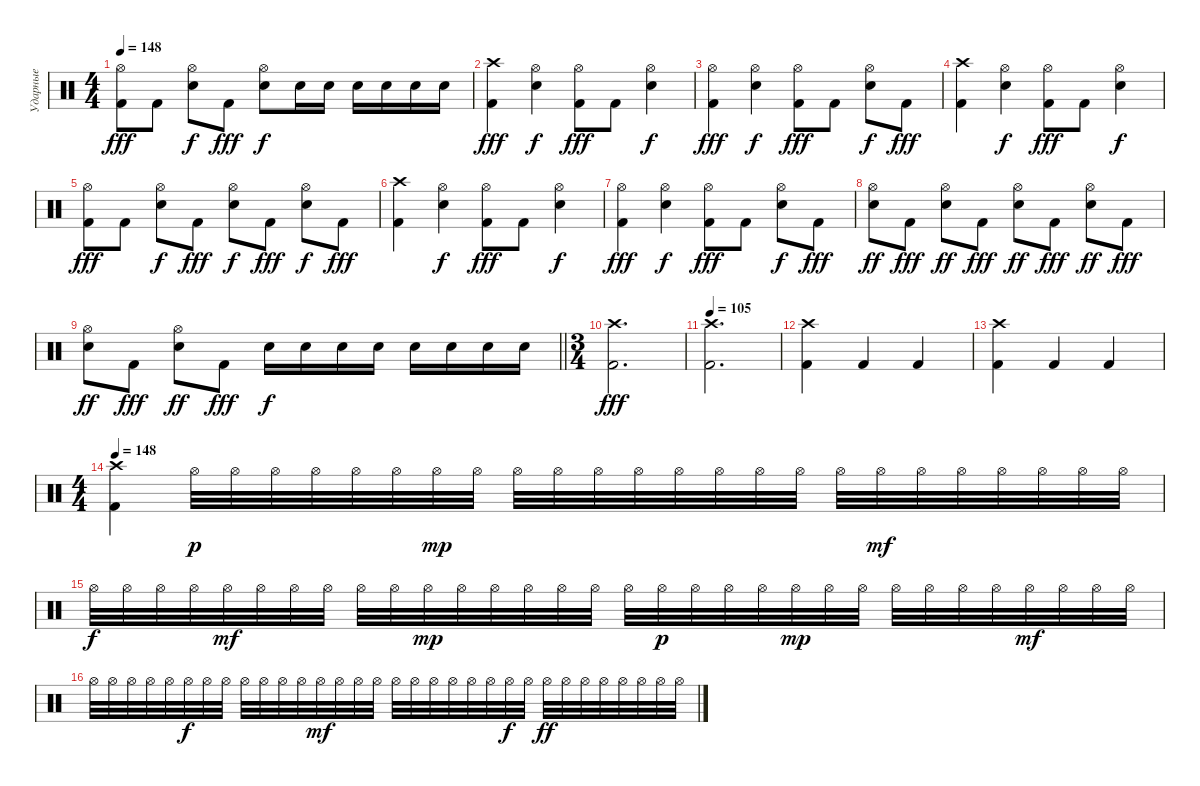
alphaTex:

\track ("Ударные" "Ударные") {instrument percussion}
\staff {score}
\articulation defaults
\ts (4 4)
\tempo 148
\clef neutral
\ks c
("Kick (hit) 2" "Hi-Hat (open)").8{dy fff} "Kick (hit) 2".8 ("Snare (hit) 2" "Hi-Hat (open)").8{dy f} "Kick (hit) 2".8{dy fff} ("Snare (hit) 2" "Hi-Hat (open)").8{dy f} "Snare (hit) 2".16 "Snare (hit) 2".16 "Snare (hit) 2".16 "Snare (hit) 2".16 "Snare (hit) 2".16 "Snare (hit) 2".16 |
("Kick (hit) 2" "Crash high (hit)").4{dy fff} ("Snare (hit) 2" "Hi-Hat (open)").4{dy f} ("Kick (hit) 2" "Hi-Hat (open)").8{dy fff} "Kick (hit) 2".8 ("Snare (hit) 2" "Hi-Hat (open)").4{dy f} |
("Kick (hit) 2" "Hi-Hat (open)").4{dy fff} ("Snare (hit) 2" "Hi-Hat (open)").4{dy f} ("Kick (hit) 2" "Hi-Hat (open)").8{dy fff} "Kick (hit) 2".8 ("Snare (hit) 2" "Hi-Hat (open)").8{dy f} "Kick (hit) 2".8{dy fff} |
("Kick (hit) 2" "Crash high (hit)").4 ("Snare (hit) 2" "Hi-Hat (open)").4{dy f} ("Kick (hit) 2" "Hi-Hat (open)").8{dy fff} "Kick (hit) 2".8 ("Snare (hit) 2" "Hi-Hat (open)").4{dy f} |
("Kick (hit) 2" "Hi-Hat (open)").8{dy fff} "Kick (hit) 2".8 ("Snare (hit) 2" "Hi-Hat (open)").8{dy f} "Kick (hit) 2".8{dy fff} ("Snare (hit) 2" "Hi-Hat (open)").8{dy f} "Kick (hit) 2".8{dy fff} ("Snare (hit) 2" "Hi-Hat (open)").8{dy f} "Kick (hit) 2".8{dy fff} |
("Kick (hit) 2" "Crash high (hit)").4 ("Snare (hit) 2" "Hi-Hat (open)").4{dy f} ("Kick (hit) 2" "Hi-Hat (open)").8{dy fff} "Kick (hit) 2".8 ("Snare (hit) 2" "Hi-Hat (open)").4{dy f} |
("Kick (hit) 2" "Hi-Hat (open)").4{dy fff} ("Snare (hit) 2" "Hi-Hat (open)").4{dy f} ("Kick (hit) 2" "Hi-Hat (open)").8{dy fff} "Kick (hit) 2".8 ("Snare (hit) 2" "Hi-Hat (open)").8{dy f} "Kick (hit) 2".8{dy fff} |
("Snare (hit) 2" "Hi-Hat (open)").8{dy ff} "Kick (hit) 2".8{dy fff} ("Snare (hit) 2" "Hi-Hat (open)").8{dy ff} "Kick (hit) 2".8{dy fff} ("Snare (hit) 2" "Hi-Hat (open)").8{dy ff} "Kick (hit) 2".8{dy fff} ("Snare (hit) 2" "Hi-Hat (open)").8{dy ff} "Kick (hit) 2".8{dy fff} |
\barLineRight lightlight
("Snare (hit) 2" "Hi-Hat (open)").8{dy ff} "Kick (hit) 2".8{dy fff} ("Snare (hit) 2" "Hi-Hat (open)").8{dy ff} "Kick (hit) 2".8{dy fff} "Snare (hit) 2".16{dy f} "Snare (hit) 2".16 "Snare (hit) 2".16 "Snare (hit) 2".16 "Snare (hit) 2".16 "Snare (hit) 2".16 "Snare (hit) 2".16 "Snare (hit) 2".16 |
\ts (3 4)
("Kick (hit) 2" "Crash high (hit)").2{d dy fff} |
\tempo 105
("Kick (hit) 2" "Crash high (hit)").2{d} |
("Kick (hit) 2" "Crash high (hit)").4 "Kick (hit) 2".4 "Kick (hit) 2".4 |
("Kick (hit) 2" "Crash high (hit)").4 "Kick (hit) 2".4 "Kick (hit) 2".4 |
\ts (4 4)
\tempo 148
("Kick (hit) 2" "Crash high (hit)").4 "Hi-Hat (open)".32{dy p} "Hi-Hat (open)".32 "Hi-Hat (open)".32 "Hi-Hat (open)".32 "Hi-Hat (open)".32 "Hi-Hat (open)".32 "Hi-Hat (open)".32{dy mp} "Hi-Hat (open)".32 "Hi-Hat (open)".32 "Hi-Hat (open)".32 "Hi-Hat (open)".32 "Hi-Hat (open)".32 "Hi-Hat (open)".32 "Hi-Hat (open)".32 "Hi-Hat (open)".32 "Hi-Hat (open)".32 "Hi-Hat (open)".32 "Hi-Hat (open)".32{dy mf} "Hi-Hat (open)".32 "Hi-Hat (open)".32 "Hi-Hat (open)".32 "Hi-Hat (open)".32 "Hi-Hat (open)".32 "Hi-Hat (open)".32 |
"Hi-Hat (open)".32{dy f} "Hi-Hat (open)".32 "Hi-Hat (open)".32 "Hi-Hat (open)".32 "Hi-Hat (open)".32{dy mf} "Hi-Hat (open)".32 "Hi-Hat (open)".32 "Hi-Hat (open)".32 "Hi-Hat (open)".32 "Hi-Hat (open)".32 "Hi-Hat (open)".32{dy mp} "Hi-Hat (open)".32 "Hi-Hat (open)".32 "Hi-Hat (open)".32 "Hi-Hat (open)".32 "Hi-Hat (open)".32 "Hi-Hat (open)".32 "Hi-Hat (open)".32{dy p} "Hi-Hat (open)".32 "Hi-Hat (open)".32 "Hi-Hat (open)".32 "Hi-Hat (open)".32{dy mp} "Hi-Hat (open)".32 "Hi-Hat (open)".32 "Hi-Hat (open)".32 "Hi-Hat (open)".32 "Hi-Hat (open)".32 "Hi-Hat (open)".32 "Hi-Hat (open)".32{dy mf} "Hi-Hat (open)".32 "Hi-Hat (open)".32 "Hi-Hat (open)".32 |
"Hi-Hat (open)".32 "Hi-Hat (open)".32 "Hi-Hat (open)".32 "Hi-Hat (open)".32 "Hi-Hat (open)".32 "Hi-Hat (open)".32{dy f} "Hi-Hat (open)".32 "Hi-Hat (open)".32 "Hi-Hat (open)".32 "Hi-Hat (open)".32 "Hi-Hat (open)".32 "Hi-Hat (open)".32 "Hi-Hat (open)".32{dy mf} "Hi-Hat (open)".32 "Hi-Hat (open)".32 "Hi-Hat (open)".32 "Hi-Hat (open)".32 "Hi-Hat (open)".32 "Hi-Hat (open)".32 "Hi-Hat (open)".32 "Hi-Hat (open)".32 "Hi-Hat (open)".32 "Hi-Hat (open)".32{dy f} "Hi-Hat (open)".32 "Hi-Hat (open)".32{dy ff} "Hi-Hat (open)".32 "Hi-Hat (open)".32 "Hi-Hat (open)".32 "Hi-Hat (open)".32 "Hi-Hat (open)".32 "Hi-Hat (open)".32 "Hi-Hat (open)".32
